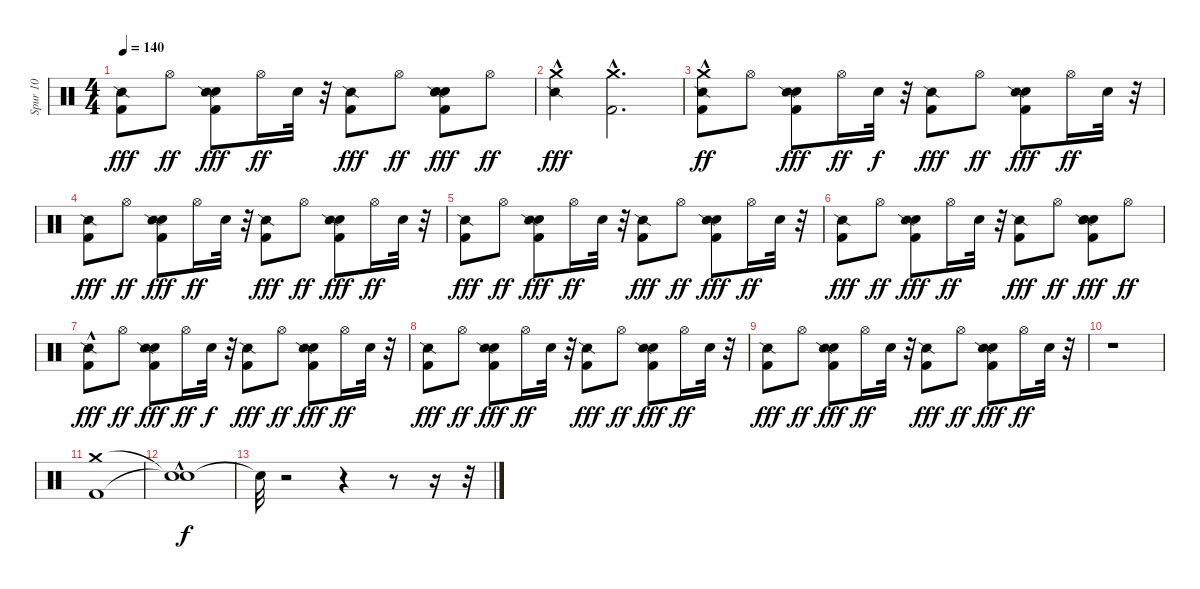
\track ("Spur 10" "Spur 10") {instrument percussion}
\staff {score}
\articulation defaults
\ts (4 4)
\tempo 140
\clef neutral
\ks c
("Kick (hit) 2" "Snare (side stick) 2").8{dy fff} "Hi-Hat (open)".8{dy ff} ("Kick (hit) 2" "Hand Clap (hit)" "Snare (side stick) 2").8{dy fff} "Hi-Hat (open)".16{dy ff} "Snare (hit) 2".32 r.32 ("Kick (hit) 2" "Snare (side stick) 2").8{dy fff} "Hi-Hat (open)".8{dy ff} ("Kick (hit) 2" "Hand Clap (hit)" "Snare (hit) 2" "Snare (side stick) 2").8{dy fff} "Hi-Hat (open)".8{dy ff} |
("Snare (side stick) 2"{hac} "Crash medium (hit)").4{dy fff} ("Crash medium (hit)"{hac} "Kick (hit) 2"{hac}).2{d} |
("Kick (hit) 2"{hac} "Snare (side stick) 2" "Crash medium (hit)").8{dy ff} "Hi-Hat (open)".8 ("Kick (hit) 2" "Hand Clap (hit)" "Snare (side stick) 2").8{dy fff} "Hi-Hat (open)".16{dy ff} "Snare (hit) 2".32{dy f} r.32 ("Kick (hit) 2" "Snare (side stick) 2").8{dy fff} "Hi-Hat (open)".8{dy ff} ("Kick (hit) 2" "Hand Clap (hit)" "Snare (side stick) 2").8{dy fff} "Hi-Hat (open)".16{dy ff} "Snare (hit) 2".32 r.32 |
("Kick (hit) 2" "Snare (side stick) 2").8{dy fff} "Hi-Hat (open)".8{dy ff} ("Kick (hit) 2" "Hand Clap (hit)" "Snare (side stick) 2").8{dy fff} "Hi-Hat (open)".16{dy ff} "Snare (hit) 2".32 r.32 ("Kick (hit) 2" "Snare (side stick) 2").8{dy fff} "Hi-Hat (open)".8{dy ff} ("Kick (hit) 2" "Hand Clap (hit)" "Snare (side stick) 2").8{dy fff} "Hi-Hat (open)".16{dy ff} "Snare (hit) 2".32 r.32 |
("Kick (hit) 2" "Snare (side stick) 2").8{dy fff} "Hi-Hat (open)".8{dy ff} ("Kick (hit) 2" "Hand Clap (hit)" "Snare (side stick) 2").8{dy fff} "Hi-Hat (open)".16{dy ff} "Snare (hit) 2".32 r.32 ("Kick (hit) 2" "Snare (side stick) 2").8{dy fff} "Hi-Hat (open)".8{dy ff} ("Kick (hit) 2" "Hand Clap (hit)" "Snare (side stick) 2").8{dy fff} "Hi-Hat (open)".16{dy ff} "Snare (hit) 2".32 r.32 |
("Kick (hit) 2" "Snare (side stick) 2").8{dy fff} "Hi-Hat (open)".8{dy ff} ("Kick (hit) 2" "Hand Clap (hit)" "Snare (side stick) 2").8{dy fff} "Hi-Hat (open)".16{dy ff} "Snare (hit) 2".32 r.32 ("Kick (hit) 2" "Snare (side stick) 2").8{dy fff} "Hi-Hat (open)".8{dy ff} ("Kick (hit) 2" "Hand Clap (hit)" "Snare (hit) 2" "Snare (side stick) 2").8{dy fff} "Hi-Hat (open)".8{dy ff} |
("Kick (hit) 2"{hac} "Snare (side stick) 2").8{dy fff} "Hi-Hat (open)".8{dy ff} ("Kick (hit) 2" "Hand Clap (hit)" "Snare (side stick) 2").8{dy fff} "Hi-Hat (open)".16{dy ff} "Snare (hit) 2".32{dy f} r.32 ("Kick (hit) 2" "Snare (side stick) 2").8{dy fff} "Hi-Hat (open)".8{dy ff} ("Kick (hit) 2" "Hand Clap (hit)" "Snare (side stick) 2").8{dy fff} "Hi-Hat (open)".16{dy ff} "Snare (hit) 2".32 r.32 |
("Kick (hit) 2" "Snare (side stick) 2").8{dy fff} "Hi-Hat (open)".8{dy ff} ("Kick (hit) 2" "Hand Clap (hit)" "Snare (side stick) 2").8{dy fff} "Hi-Hat (open)".16{dy ff} "Snare (hit) 2".32 r.32 ("Kick (hit) 2" "Snare (side stick) 2").8{dy fff} "Hi-Hat (open)".8{dy ff} ("Kick (hit) 2" "Hand Clap (hit)" "Snare (side stick) 2").8{dy fff} "Hi-Hat (open)".16{dy ff} "Snare (hit) 2".32 r.32 |
("Kick (hit) 2" "Snare (side stick) 2").8{dy fff} "Hi-Hat (open)".8{dy ff} ("Kick (hit) 2" "Hand Clap (hit)" "Snare (side stick) 2").8{dy fff} "Hi-Hat (open)".16{dy ff} "Snare (hit) 2".32 r.32 ("Kick (hit) 2" "Snare (side stick) 2").8{dy fff} "Hi-Hat (open)".8{dy ff} ("Kick (hit) 2" "Hand Clap (hit)" "Snare (side stick) 2").8{dy fff} "Hi-Hat (open)".16{dy ff} "Snare (hit) 2".32 r.32 |
r.1 |
("Crash medium (hit)" "Kick (hit) 2").1 |
("Snare (hit)"{hac t} "Snare (hit)"{t}).1{dy f} |
"Snare (hit)"{t}.32 r.2 r.4 r.8 r.16 r.32
